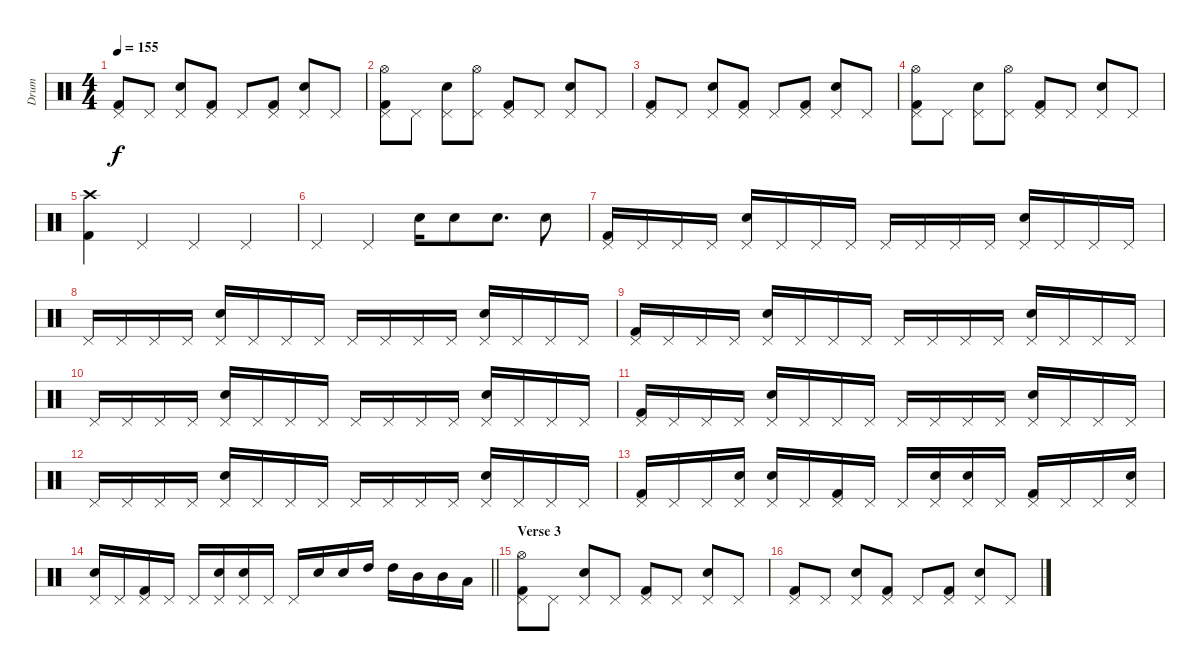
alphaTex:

\track ("Drum" "Drum") {instrument percussion}
\staff {score}
\articulation defaults
\ts (4 4)
\tempo 155
\clef neutral
\ks c
("Kick (hit) 2" "Pedal Hi-Hat (hit)").8{dy f} "Pedal Hi-Hat (hit)".8 ("Electric Snare (hit)" "Pedal Hi-Hat (hit)").8 ("Kick (hit) 2" "Pedal Hi-Hat (hit)").8 "Pedal Hi-Hat (hit)".8 ("Kick (hit) 2" "Pedal Hi-Hat (hit)").8 ("Electric Snare (hit)" "Pedal Hi-Hat (hit)").8 "Pedal Hi-Hat (hit)".8 |
("Kick (hit) 2" "Pedal Hi-Hat (hit)" "Hi-Hat (open)").8 "Pedal Hi-Hat (hit)".8 ("Electric Snare (hit)" "Pedal Hi-Hat (hit)").8 ("Pedal Hi-Hat (hit)" "Hi-Hat (open)").8 ("Kick (hit) 2" "Pedal Hi-Hat (hit)").8 "Pedal Hi-Hat (hit)".8 ("Electric Snare (hit)" "Pedal Hi-Hat (hit)").8 "Pedal Hi-Hat (hit)".8 |
("Kick (hit) 2" "Pedal Hi-Hat (hit)").8 "Pedal Hi-Hat (hit)".8 ("Electric Snare (hit)" "Pedal Hi-Hat (hit)").8 ("Kick (hit) 2" "Pedal Hi-Hat (hit)").8 "Pedal Hi-Hat (hit)".8 ("Kick (hit) 2" "Pedal Hi-Hat (hit)").8 ("Electric Snare (hit)" "Pedal Hi-Hat (hit)").8 "Pedal Hi-Hat (hit)".8 |
("Kick (hit) 2" "Pedal Hi-Hat (hit)" "Hi-Hat (open)").8 "Pedal Hi-Hat (hit)".8 ("Electric Snare (hit)" "Pedal Hi-Hat (hit)").8 ("Pedal Hi-Hat (hit)" "Hi-Hat (open)").8 ("Kick (hit) 2" "Pedal Hi-Hat (hit)").8 "Pedal Hi-Hat (hit)".8 ("Electric Snare (hit)" "Pedal Hi-Hat (hit)").8 "Pedal Hi-Hat (hit)".8 |
("Kick (hit) 2" "Crash high (hit)").4 "Pedal Hi-Hat (hit)".4 "Pedal Hi-Hat (hit)".4 "Pedal Hi-Hat (hit)".4 |
"Pedal Hi-Hat (hit)".4 "Pedal Hi-Hat (hit)".4 "Electric Snare (hit)".16 "Electric Snare (hit)".8 "Electric Snare (hit)".8{d} "Electric Snare (hit)".8 |
("Kick (hit) 2" "Pedal Hi-Hat (hit)").16 "Pedal Hi-Hat (hit)".16 "Pedal Hi-Hat (hit)".16 "Pedal Hi-Hat (hit)".16 ("Electric Snare (hit)" "Pedal Hi-Hat (hit)").16 "Pedal Hi-Hat (hit)".16 "Pedal Hi-Hat (hit)".16 "Pedal Hi-Hat (hit)".16 "Pedal Hi-Hat (hit)".16 "Pedal Hi-Hat (hit)".16 "Pedal Hi-Hat (hit)".16 "Pedal Hi-Hat (hit)".16 ("Electric Snare (hit)" "Pedal Hi-Hat (hit)").16 "Pedal Hi-Hat (hit)".16 "Pedal Hi-Hat (hit)".16 "Pedal Hi-Hat (hit)".16 |
"Pedal Hi-Hat (hit)".16 "Pedal Hi-Hat (hit)".16 "Pedal Hi-Hat (hit)".16 "Pedal Hi-Hat (hit)".16 ("Electric Snare (hit)" "Pedal Hi-Hat (hit)").16 "Pedal Hi-Hat (hit)".16 "Pedal Hi-Hat (hit)".16 "Pedal Hi-Hat (hit)".16 "Pedal Hi-Hat (hit)".16 "Pedal Hi-Hat (hit)".16 "Pedal Hi-Hat (hit)".16 "Pedal Hi-Hat (hit)".16 ("Electric Snare (hit)" "Pedal Hi-Hat (hit)").16 "Pedal Hi-Hat (hit)".16 "Pedal Hi-Hat (hit)".16 "Pedal Hi-Hat (hit)".16 |
("Kick (hit) 2" "Pedal Hi-Hat (hit)").16 "Pedal Hi-Hat (hit)".16 "Pedal Hi-Hat (hit)".16 "Pedal Hi-Hat (hit)".16 ("Electric Snare (hit)" "Pedal Hi-Hat (hit)").16 "Pedal Hi-Hat (hit)".16 "Pedal Hi-Hat (hit)".16 "Pedal Hi-Hat (hit)".16 "Pedal Hi-Hat (hit)".16 "Pedal Hi-Hat (hit)".16 "Pedal Hi-Hat (hit)".16 "Pedal Hi-Hat (hit)".16 ("Electric Snare (hit)" "Pedal Hi-Hat (hit)").16 "Pedal Hi-Hat (hit)".16 "Pedal Hi-Hat (hit)".16 "Pedal Hi-Hat (hit)".16 |
"Pedal Hi-Hat (hit)".16 "Pedal Hi-Hat (hit)".16 "Pedal Hi-Hat (hit)".16 "Pedal Hi-Hat (hit)".16 ("Electric Snare (hit)" "Pedal Hi-Hat (hit)").16 "Pedal Hi-Hat (hit)".16 "Pedal Hi-Hat (hit)".16 "Pedal Hi-Hat (hit)".16 "Pedal Hi-Hat (hit)".16 "Pedal Hi-Hat (hit)".16 "Pedal Hi-Hat (hit)".16 "Pedal Hi-Hat (hit)".16 ("Electric Snare (hit)" "Pedal Hi-Hat (hit)").16 "Pedal Hi-Hat (hit)".16 "Pedal Hi-Hat (hit)".16 "Pedal Hi-Hat (hit)".16 |
("Kick (hit) 2" "Pedal Hi-Hat (hit)").16 "Pedal Hi-Hat (hit)".16 "Pedal Hi-Hat (hit)".16 "Pedal Hi-Hat (hit)".16 ("Electric Snare (hit)" "Pedal Hi-Hat (hit)").16 "Pedal Hi-Hat (hit)".16 "Pedal Hi-Hat (hit)".16 "Pedal Hi-Hat (hit)".16 "Pedal Hi-Hat (hit)".16 "Pedal Hi-Hat (hit)".16 "Pedal Hi-Hat (hit)".16 "Pedal Hi-Hat (hit)".16 ("Electric Snare (hit)" "Pedal Hi-Hat (hit)").16 "Pedal Hi-Hat (hit)".16 "Pedal Hi-Hat (hit)".16 "Pedal Hi-Hat (hit)".16 |
"Pedal Hi-Hat (hit)".16 "Pedal Hi-Hat (hit)".16 "Pedal Hi-Hat (hit)".16 "Pedal Hi-Hat (hit)".16 ("Electric Snare (hit)" "Pedal Hi-Hat (hit)").16 "Pedal Hi-Hat (hit)".16 "Pedal Hi-Hat (hit)".16 "Pedal Hi-Hat (hit)".16 "Pedal Hi-Hat (hit)".16 "Pedal Hi-Hat (hit)".16 "Pedal Hi-Hat (hit)".16 "Pedal Hi-Hat (hit)".16 ("Electric Snare (hit)" "Pedal Hi-Hat (hit)").16 "Pedal Hi-Hat (hit)".16 "Pedal Hi-Hat (hit)".16 "Pedal Hi-Hat (hit)".16 |
("Kick (hit) 2" "Pedal Hi-Hat (hit)").16 "Pedal Hi-Hat (hit)".16 "Pedal Hi-Hat (hit)".16 ("Electric Snare (hit)" "Pedal Hi-Hat (hit)").16 ("Electric Snare (hit)" "Pedal Hi-Hat (hit)").16 "Pedal Hi-Hat (hit)".16 ("Kick (hit) 2" "Pedal Hi-Hat (hit)").16 "Pedal Hi-Hat (hit)".16 "Pedal Hi-Hat (hit)".16 ("Electric Snare (hit)" "Pedal Hi-Hat (hit)").16 ("Electric Snare (hit)" "Pedal Hi-Hat (hit)").16 "Pedal Hi-Hat (hit)".16 ("Kick (hit) 2" "Pedal Hi-Hat (hit)").16 "Pedal Hi-Hat (hit)".16 "Pedal Hi-Hat (hit)".16 ("Electric Snare (hit)" "Pedal Hi-Hat (hit)").16 |
\barLineRight lightlight
("Electric Snare (hit)" "Pedal Hi-Hat (hit)").16 "Pedal Hi-Hat (hit)".16 ("Kick (hit) 2" "Pedal Hi-Hat (hit)").16 "Pedal Hi-Hat (hit)".16 "Pedal Hi-Hat (hit)".16 ("Electric Snare (hit)" "Pedal Hi-Hat (hit)").16 ("Electric Snare (hit)" "Pedal Hi-Hat (hit)").16 "Pedal Hi-Hat (hit)".16 "Pedal Hi-Hat (hit)".16 "Electric Snare (hit)".16 "Electric Snare (hit)".16 "High Tom (hit)".16 "High Tom (hit)".16 "Mid Tom (hit)".16 "Mid Tom (hit)".16 "Low Tom (hit)".16 |
\section ("" "Verse 3")
("Kick (hit) 2" "Pedal Hi-Hat (hit)" "Hi-Hat (open)").8 "Pedal Hi-Hat (hit)".8 ("Electric Snare (hit)" "Pedal Hi-Hat (hit)").8 "Pedal Hi-Hat (hit)".8 ("Kick (hit) 2" "Pedal Hi-Hat (hit)").8 "Pedal Hi-Hat (hit)".8 ("Electric Snare (hit)" "Pedal Hi-Hat (hit)").8 "Pedal Hi-Hat (hit)".8 |
("Kick (hit) 2" "Pedal Hi-Hat (hit)").8 "Pedal Hi-Hat (hit)".8 ("Electric Snare (hit)" "Pedal Hi-Hat (hit)").8 ("Kick (hit) 2" "Pedal Hi-Hat (hit)").8 "Pedal Hi-Hat (hit)".8 ("Kick (hit) 2" "Pedal Hi-Hat (hit)").8 ("Electric Snare (hit)" "Pedal Hi-Hat (hit)").8 "Pedal Hi-Hat (hit)".8
